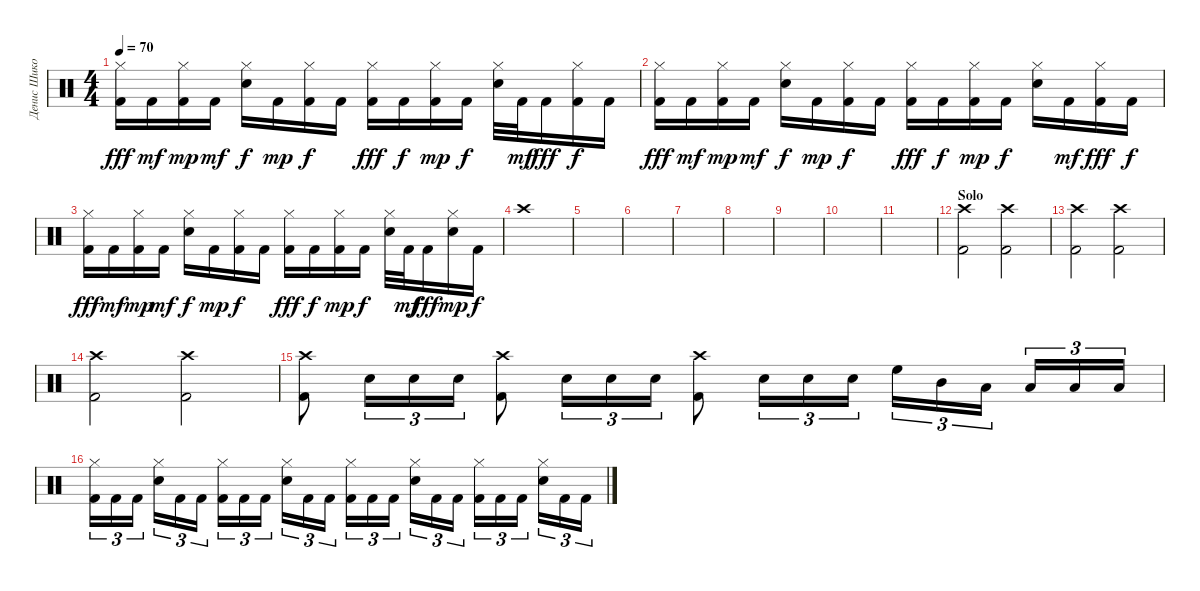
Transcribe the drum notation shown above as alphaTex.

\track ("Денис Шиков" "Денис Шико") {instrument percussion}
\staff {score}
\articulation defaults
\ts (4 4)
\tempo 70
\clef neutral
\ks c
("Hi-Hat (closed)" "Kick (hit) 2").16{dy fff} "Kick (hit) 2".16{dy mf} ("Hi-Hat (closed)" "Kick (hit) 2").16{dy mp} "Kick (hit) 2".16{dy mf} ("Hi-Hat (closed)" "Electric Snare (hit)").16{dy f} "Kick (hit) 2".16{dy mp} ("Hi-Hat (closed)" "Kick (hit) 2").16{dy f} "Kick (hit) 2".16 ("Hi-Hat (closed)" "Kick (hit) 2").16{dy fff} "Kick (hit) 2".16{dy f} ("Hi-Hat (closed)" "Kick (hit) 2").16{dy mp} "Kick (hit) 2".16{dy f} ("Hi-Hat (closed)" "Electric Snare (hit)").32 "Kick (hit) 2".32{dy mf} "Kick (hit) 2".16{dy fff} ("Hi-Hat (closed)" "Kick (hit) 2").16{dy f} "Kick (hit) 2".16 |
("Hi-Hat (closed)" "Kick (hit) 2").16{dy fff} "Kick (hit) 2".16{dy mf} ("Hi-Hat (closed)" "Kick (hit) 2").16{dy mp} "Kick (hit) 2".16{dy mf} ("Hi-Hat (closed)" "Electric Snare (hit)").16{dy f} "Kick (hit) 2".16{dy mp} ("Hi-Hat (closed)" "Kick (hit) 2").16{dy f} "Kick (hit) 2".16 ("Hi-Hat (closed)" "Kick (hit) 2").16{dy fff} "Kick (hit) 2".16{dy f} ("Hi-Hat (closed)" "Kick (hit) 2").16{dy mp} "Kick (hit) 2".16{dy f} ("Hi-Hat (closed)" "Electric Snare (hit)").16 "Kick (hit) 2".16{dy mf} ("Hi-Hat (closed)" "Kick (hit) 2").16{dy fff} "Kick (hit) 2".16{dy f} |
("Hi-Hat (closed)" "Kick (hit) 2").16{dy fff} "Kick (hit) 2".16{dy mf} ("Hi-Hat (closed)" "Kick (hit) 2").16{dy mp} "Kick (hit) 2".16{dy mf} ("Hi-Hat (closed)" "Electric Snare (hit)").16{dy f} "Kick (hit) 2".16{dy mp} ("Hi-Hat (closed)" "Kick (hit) 2").16{dy f} "Kick (hit) 2".16 ("Hi-Hat (closed)" "Kick (hit) 2").16{dy fff} "Kick (hit) 2".16{dy f} ("Hi-Hat (closed)" "Kick (hit) 2").16{dy mp} "Kick (hit) 2".16{dy f} ("Hi-Hat (closed)" "Electric Snare (hit)").32 "Kick (hit) 2".32{dy mf} "Kick (hit) 2".16{dy fff} ("Hi-Hat (closed)" "Electric Snare (hit)").16{dy mp} "Kick (hit) 2".16{dy f} |
"Crash high (hit)".1 |
|
|
|
|
|
|
|
\section ("" "Solo")
("Crash high (hit)" "Kick (hit) 2").2 ("Crash high (hit)" "Kick (hit) 2").2 |
("Crash high (hit)" "Kick (hit) 2").2 ("Crash high (hit)" "Kick (hit) 2").2 |
("Crash high (hit)" "Kick (hit) 2").2 ("Crash high (hit)" "Kick (hit) 2").2 |
("Crash high (hit)" "Kick (hit) 2").8 "Electric Snare (hit)".16{tu (3 2)} "Electric Snare (hit)".16{tu (3 2)} "Electric Snare (hit)".16{tu (3 2)} ("Crash high (hit)" "Kick (hit) 2").8 "Electric Snare (hit)".16{tu (3 2)} "Electric Snare (hit)".16{tu (3 2)} "Electric Snare (hit)".16{tu (3 2)} ("Crash high (hit)" "Kick (hit) 2").8 "Electric Snare (hit)".16{tu (3 2)} "Electric Snare (hit)".16{tu (3 2)} "Electric Snare (hit)".16{tu (3 2)} "High Floor Tom (hit)".16{tu (3 2)} "Mid Tom (hit)".16{tu (3 2)} "Low Tom (hit)".16{tu (3 2)} "Low Tom (hit)".16{tu (3 2)} "Low Floor Tom (hit)".16{tu (3 2)} "Low Floor Tom (hit)".16{tu (3 2)} |
("Hi-Hat (closed)" "Kick (hit) 2").16{tu (3 2)} "Kick (hit) 2".16{tu (3 2)} "Kick (hit) 2".16{tu (3 2)} ("Hi-Hat (closed)" "Electric Snare (hit)").16{tu (3 2)} "Kick (hit) 2".16{tu (3 2)} "Kick (hit) 2".16{tu (3 2)} ("Hi-Hat (closed)" "Kick (hit) 2").16{tu (3 2)} "Kick (hit) 2".16{tu (3 2)} "Kick (hit) 2".16{tu (3 2)} ("Hi-Hat (closed)" "Electric Snare (hit)").16{tu (3 2)} "Kick (hit) 2".16{tu (3 2)} "Kick (hit) 2".16{tu (3 2)} ("Hi-Hat (closed)" "Kick (hit) 2").16{tu (3 2)} "Kick (hit) 2".16{tu (3 2)} "Kick (hit) 2".16{tu (3 2)} ("Hi-Hat (closed)" "Electric Snare (hit)").16{tu (3 2)} "Kick (hit) 2".16{tu (3 2)} "Kick (hit) 2".16{tu (3 2)} ("Hi-Hat (closed)" "Kick (hit) 2").16{tu (3 2)} "Kick (hit) 2".16{tu (3 2)} "Kick (hit) 2".16{tu (3 2)} ("Hi-Hat (closed)" "Electric Snare (hit)").16{tu (3 2)} "Kick (hit) 2".16{tu (3 2)} "Kick (hit) 2".16{tu (3 2)}
